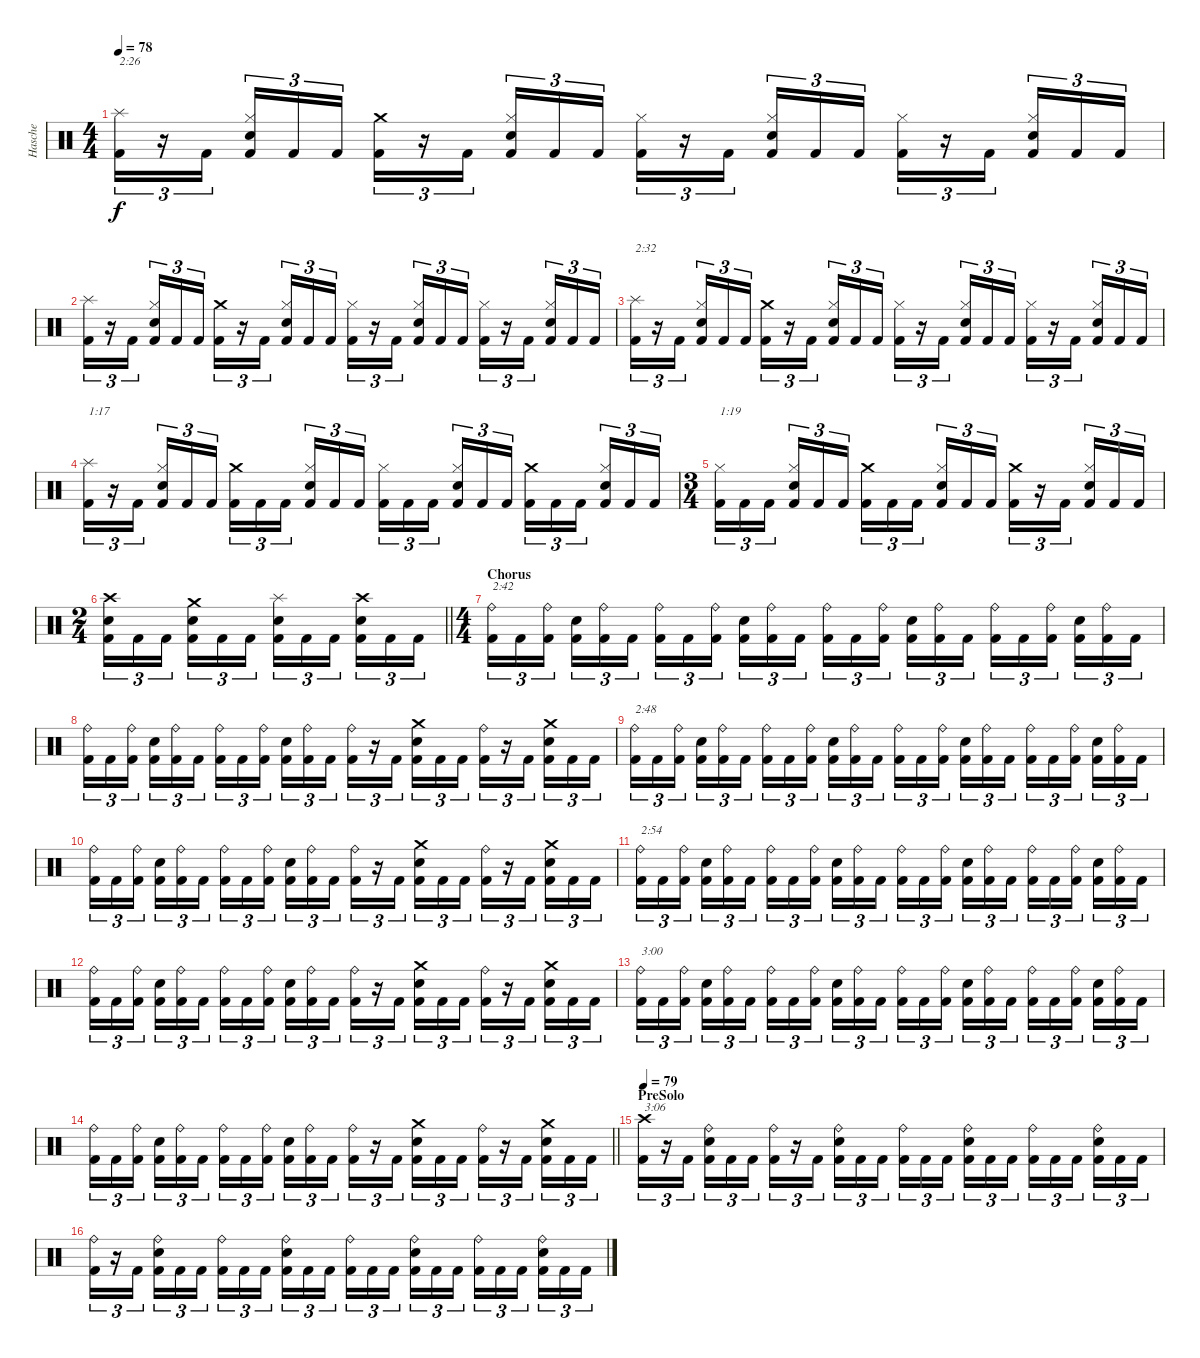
\track ("Hasche" "Hasche") {instrument percussion}
\staff {score}
\articulation defaults
\ts (4 4)
\tempo 78
\clef neutral
\ks c
("Splash (hit)" "Kick (hit) 2").16{tu (3 2) txt "2:26" dy f} r.16{tu (3 2)} "Kick (hit) 2".16{tu (3 2) beam splitsecondary} ("Hi-Hat (closed)" "Snare (hit) 2" "Kick (hit) 2").16{tu (3 2)} "Kick (hit) 2".16{tu (3 2)} "Kick (hit) 2".16{tu (3 2)} ("Crash medium (hit)" "Kick (hit) 2").16{tu (3 2)} r.16{tu (3 2)} "Kick (hit) 2".16{tu (3 2) beam splitsecondary} ("Hi-Hat (closed)" "Snare (hit) 2" "Kick (hit) 2").16{tu (3 2)} "Kick (hit) 2".16{tu (3 2)} "Kick (hit) 2".16{tu (3 2)} ("Hi-Hat (closed)" "Kick (hit) 2").16{tu (3 2)} r.16{tu (3 2)} "Kick (hit) 2".16{tu (3 2) beam splitsecondary} ("Hi-Hat (closed)" "Snare (hit) 2" "Kick (hit) 2").16{tu (3 2)} "Kick (hit) 2".16{tu (3 2)} "Kick (hit) 2".16{tu (3 2)} ("Hi-Hat (closed)" "Kick (hit) 2").16{tu (3 2)} r.16{tu (3 2)} "Kick (hit) 2".16{tu (3 2) beam splitsecondary} ("Hi-Hat (closed)" "Snare (hit) 2" "Kick (hit) 2").16{tu (3 2)} "Kick (hit) 2".16{tu (3 2)} "Kick (hit) 2".16{tu (3 2)} |
("Splash (hit)" "Kick (hit) 2").16{tu (3 2)} r.16{tu (3 2)} "Kick (hit) 2".16{tu (3 2) beam splitsecondary} ("Hi-Hat (closed)" "Snare (hit) 2" "Kick (hit) 2").16{tu (3 2)} "Kick (hit) 2".16{tu (3 2)} "Kick (hit) 2".16{tu (3 2)} ("Crash medium (hit)" "Kick (hit) 2").16{tu (3 2)} r.16{tu (3 2)} "Kick (hit) 2".16{tu (3 2) beam splitsecondary} ("Hi-Hat (closed)" "Snare (hit) 2" "Kick (hit) 2").16{tu (3 2)} "Kick (hit) 2".16{tu (3 2)} "Kick (hit) 2".16{tu (3 2)} ("Hi-Hat (closed)" "Kick (hit) 2").16{tu (3 2)} r.16{tu (3 2)} "Kick (hit) 2".16{tu (3 2) beam splitsecondary} ("Hi-Hat (closed)" "Snare (hit) 2" "Kick (hit) 2").16{tu (3 2)} "Kick (hit) 2".16{tu (3 2)} "Kick (hit) 2".16{tu (3 2)} ("Hi-Hat (closed)" "Kick (hit) 2").16{tu (3 2)} r.16{tu (3 2)} "Kick (hit) 2".16{tu (3 2) beam splitsecondary} ("Hi-Hat (closed)" "Snare (hit) 2" "Kick (hit) 2").16{tu (3 2)} "Kick (hit) 2".16{tu (3 2)} "Kick (hit) 2".16{tu (3 2)} |
("Splash (hit)" "Kick (hit) 2").16{tu (3 2) txt "2:32"} r.16{tu (3 2)} "Kick (hit) 2".16{tu (3 2) beam splitsecondary} ("Hi-Hat (closed)" "Snare (hit) 2" "Kick (hit) 2").16{tu (3 2)} "Kick (hit) 2".16{tu (3 2)} "Kick (hit) 2".16{tu (3 2)} ("Crash medium (hit)" "Kick (hit) 2").16{tu (3 2)} r.16{tu (3 2)} "Kick (hit) 2".16{tu (3 2) beam splitsecondary} ("Hi-Hat (closed)" "Snare (hit) 2" "Kick (hit) 2").16{tu (3 2)} "Kick (hit) 2".16{tu (3 2)} "Kick (hit) 2".16{tu (3 2)} ("Hi-Hat (closed)" "Kick (hit) 2").16{tu (3 2)} r.16{tu (3 2)} "Kick (hit) 2".16{tu (3 2) beam splitsecondary} ("Hi-Hat (closed)" "Snare (hit) 2" "Kick (hit) 2").16{tu (3 2)} "Kick (hit) 2".16{tu (3 2)} "Kick (hit) 2".16{tu (3 2)} ("Hi-Hat (closed)" "Kick (hit) 2").16{tu (3 2)} r.16{tu (3 2)} "Kick (hit) 2".16{tu (3 2) beam splitsecondary} ("Hi-Hat (closed)" "Snare (hit) 2" "Kick (hit) 2").16{tu (3 2)} "Kick (hit) 2".16{tu (3 2)} "Kick (hit) 2".16{tu (3 2)} |
("Splash (hit)" "Kick (hit) 2").16{tu (3 2) txt "1:17"} r.16{tu (3 2)} "Kick (hit) 2".16{tu (3 2) beam splitsecondary} ("Hi-Hat (closed)" "Snare (hit) 2" "Kick (hit) 2").16{tu (3 2)} "Kick (hit) 2".16{tu (3 2)} "Kick (hit) 2".16{tu (3 2)} ("Crash medium (hit)" "Kick (hit) 2").16{tu (3 2)} "Kick (hit) 2".16{tu (3 2)} "Kick (hit) 2".16{tu (3 2) beam splitsecondary} ("Hi-Hat (closed)" "Snare (hit) 2" "Kick (hit) 2").16{tu (3 2)} "Kick (hit) 2".16{tu (3 2)} "Kick (hit) 2".16{tu (3 2)} ("Hi-Hat (closed)" "Kick (hit) 2").16{tu (3 2)} "Kick (hit) 2".16{tu (3 2)} "Kick (hit) 2".16{tu (3 2) beam splitsecondary} ("Hi-Hat (closed)" "Snare (hit) 2" "Kick (hit) 2").16{tu (3 2)} "Kick (hit) 2".16{tu (3 2)} "Kick (hit) 2".16{tu (3 2)} ("Crash medium (hit)" "Kick (hit) 2").16{tu (3 2)} "Kick (hit) 2".16{tu (3 2)} "Kick (hit) 2".16{tu (3 2) beam splitsecondary} ("Hi-Hat (closed)" "Snare (hit) 2" "Kick (hit) 2").16{tu (3 2)} "Kick (hit) 2".16{tu (3 2)} "Kick (hit) 2".16{tu (3 2)} |
\ts (3 4)
("Hi-Hat (closed)" "Kick (hit) 2").16{tu (3 2) txt "1:19"} "Kick (hit) 2".16{tu (3 2)} "Kick (hit) 2".16{tu (3 2) beam splitsecondary} ("Hi-Hat (closed)" "Snare (hit) 2" "Kick (hit) 2").16{tu (3 2)} "Kick (hit) 2".16{tu (3 2)} "Kick (hit) 2".16{tu (3 2)} ("Crash medium (hit)" "Kick (hit) 2").16{tu (3 2)} "Kick (hit) 2".16{tu (3 2)} "Kick (hit) 2".16{tu (3 2) beam splitsecondary} ("Hi-Hat (closed)" "Snare (hit) 2" "Kick (hit) 2").16{tu (3 2)} "Kick (hit) 2".16{tu (3 2)} "Kick (hit) 2".16{tu (3 2)} ("Crash medium (hit)" "Kick (hit) 2").16{tu (3 2)} r.16{tu (3 2)} "Kick (hit) 2".16{tu (3 2) beam splitsecondary} ("Hi-Hat (closed)" "Snare (hit) 2" "Kick (hit) 2").16{tu (3 2)} "Kick (hit) 2".16{tu (3 2)} "Kick (hit) 2".16{tu (3 2)} |
\ts (2 4)
\barLineRight lightlight
("Crash high (hit)" "Snare (hit) 2" "Kick (hit) 2").16{tu (3 2)} "Kick (hit) 2".16{tu (3 2)} "Kick (hit) 2".16{tu (3 2) beam splitsecondary} ("Crash medium (hit)" "Snare (hit) 2" "Kick (hit) 2").16{tu (3 2)} "Kick (hit) 2".16{tu (3 2)} "Kick (hit) 2".16{tu (3 2)} ("Splash (hit)" "Snare (hit) 2" "Kick (hit) 2").16{tu (3 2)} "Kick (hit) 2".16{tu (3 2)} "Kick (hit) 2".16{tu (3 2) beam splitsecondary} ("Crash high (hit)" "Snare (hit) 2" "Kick (hit) 2").16{tu (3 2)} "Kick (hit) 2".16{tu (3 2)} "Kick (hit) 2".16{tu (3 2)} |
\ts (4 4)
\section ("" "Chorus")
("Ride (bell)" "Kick (hit) 2").16{tu (3 2) txt "2:42"} "Kick (hit) 2".16{tu (3 2)} ("Ride (bell)" "Kick (hit) 2").16{tu (3 2) beam splitsecondary} ("Snare (hit) 2" "Kick (hit) 2").16{tu (3 2)} ("Ride (bell)" "Kick (hit) 2").16{tu (3 2)} "Kick (hit) 2".16{tu (3 2)} ("Ride (bell)" "Kick (hit) 2").16{tu (3 2)} "Kick (hit) 2".16{tu (3 2)} ("Ride (bell)" "Kick (hit) 2").16{tu (3 2) beam splitsecondary} ("Snare (hit) 2" "Kick (hit) 2").16{tu (3 2)} ("Ride (bell)" "Kick (hit) 2").16{tu (3 2)} "Kick (hit) 2".16{tu (3 2)} ("Ride (bell)" "Kick (hit) 2").16{tu (3 2)} "Kick (hit) 2".16{tu (3 2)} ("Ride (bell)" "Kick (hit) 2").16{tu (3 2) beam splitsecondary} ("Snare (hit) 2" "Kick (hit) 2").16{tu (3 2)} ("Ride (bell)" "Kick (hit) 2").16{tu (3 2)} "Kick (hit) 2".16{tu (3 2)} ("Ride (bell)" "Kick (hit) 2").16{tu (3 2)} "Kick (hit) 2".16{tu (3 2)} ("Ride (bell)" "Kick (hit) 2").16{tu (3 2) beam splitsecondary} ("Snare (hit) 2" "Kick (hit) 2").16{tu (3 2)} ("Ride (bell)" "Kick (hit) 2").16{tu (3 2)} "Kick (hit) 2".16{tu (3 2)} |
("Ride (bell)" "Kick (hit) 2").16{tu (3 2)} "Kick (hit) 2".16{tu (3 2)} ("Ride (bell)" "Kick (hit) 2").16{tu (3 2) beam splitsecondary} ("Snare (hit) 2" "Kick (hit) 2").16{tu (3 2)} ("Ride (bell)" "Kick (hit) 2").16{tu (3 2)} "Kick (hit) 2".16{tu (3 2)} ("Ride (bell)" "Kick (hit) 2").16{tu (3 2)} "Kick (hit) 2".16{tu (3 2)} ("Ride (bell)" "Kick (hit) 2").16{tu (3 2) beam splitsecondary} ("Snare (hit) 2" "Kick (hit) 2").16{tu (3 2)} ("Ride (bell)" "Kick (hit) 2").16{tu (3 2)} "Kick (hit) 2".16{tu (3 2)} ("Ride (bell)" "Kick (hit) 2").16{tu (3 2)} r.16{tu (3 2)} "Kick (hit) 2".16{tu (3 2) beam splitsecondary} ("Crash medium (hit)" "Snare (hit) 2" "Kick (hit) 2").16{tu (3 2)} "Kick (hit) 2".16{tu (3 2)} "Kick (hit) 2".16{tu (3 2)} ("Ride (bell)" "Kick (hit) 2").16{tu (3 2)} r.16{tu (3 2)} "Kick (hit) 2".16{tu (3 2) beam splitsecondary} ("Crash medium (hit)" "Snare (hit) 2" "Kick (hit) 2").16{tu (3 2)} "Kick (hit) 2".16{tu (3 2)} "Kick (hit) 2".16{tu (3 2)} |
("Ride (bell)" "Kick (hit) 2").16{tu (3 2) txt "2:48"} "Kick (hit) 2".16{tu (3 2)} ("Ride (bell)" "Kick (hit) 2").16{tu (3 2) beam splitsecondary} ("Snare (hit) 2" "Kick (hit) 2").16{tu (3 2)} ("Ride (bell)" "Kick (hit) 2").16{tu (3 2)} "Kick (hit) 2".16{tu (3 2)} ("Ride (bell)" "Kick (hit) 2").16{tu (3 2)} "Kick (hit) 2".16{tu (3 2)} ("Ride (bell)" "Kick (hit) 2").16{tu (3 2) beam splitsecondary} ("Snare (hit) 2" "Kick (hit) 2").16{tu (3 2)} ("Ride (bell)" "Kick (hit) 2").16{tu (3 2)} "Kick (hit) 2".16{tu (3 2)} ("Ride (bell)" "Kick (hit) 2").16{tu (3 2)} "Kick (hit) 2".16{tu (3 2)} ("Ride (bell)" "Kick (hit) 2").16{tu (3 2) beam splitsecondary} ("Snare (hit) 2" "Kick (hit) 2").16{tu (3 2)} ("Ride (bell)" "Kick (hit) 2").16{tu (3 2)} "Kick (hit) 2".16{tu (3 2)} ("Ride (bell)" "Kick (hit) 2").16{tu (3 2)} "Kick (hit) 2".16{tu (3 2)} ("Ride (bell)" "Kick (hit) 2").16{tu (3 2) beam splitsecondary} ("Snare (hit) 2" "Kick (hit) 2").16{tu (3 2)} ("Ride (bell)" "Kick (hit) 2").16{tu (3 2)} "Kick (hit) 2".16{tu (3 2)} |
("Ride (bell)" "Kick (hit) 2").16{tu (3 2)} "Kick (hit) 2".16{tu (3 2)} ("Ride (bell)" "Kick (hit) 2").16{tu (3 2) beam splitsecondary} ("Snare (hit) 2" "Kick (hit) 2").16{tu (3 2)} ("Ride (bell)" "Kick (hit) 2").16{tu (3 2)} "Kick (hit) 2".16{tu (3 2)} ("Ride (bell)" "Kick (hit) 2").16{tu (3 2)} "Kick (hit) 2".16{tu (3 2)} ("Ride (bell)" "Kick (hit) 2").16{tu (3 2) beam splitsecondary} ("Snare (hit) 2" "Kick (hit) 2").16{tu (3 2)} ("Ride (bell)" "Kick (hit) 2").16{tu (3 2)} "Kick (hit) 2".16{tu (3 2)} ("Ride (bell)" "Kick (hit) 2").16{tu (3 2)} r.16{tu (3 2)} "Kick (hit) 2".16{tu (3 2) beam splitsecondary} ("Crash medium (hit)" "Snare (hit) 2" "Kick (hit) 2").16{tu (3 2)} "Kick (hit) 2".16{tu (3 2)} "Kick (hit) 2".16{tu (3 2)} ("Ride (bell)" "Kick (hit) 2").16{tu (3 2)} r.16{tu (3 2)} "Kick (hit) 2".16{tu (3 2) beam splitsecondary} ("Crash medium (hit)" "Snare (hit) 2" "Kick (hit) 2").16{tu (3 2)} "Kick (hit) 2".16{tu (3 2)} "Kick (hit) 2".16{tu (3 2)} |
("Ride (bell)" "Kick (hit) 2").16{tu (3 2) txt "2:54"} "Kick (hit) 2".16{tu (3 2)} ("Ride (bell)" "Kick (hit) 2").16{tu (3 2) beam splitsecondary} ("Snare (hit) 2" "Kick (hit) 2").16{tu (3 2)} ("Ride (bell)" "Kick (hit) 2").16{tu (3 2)} "Kick (hit) 2".16{tu (3 2)} ("Ride (bell)" "Kick (hit) 2").16{tu (3 2)} "Kick (hit) 2".16{tu (3 2)} ("Ride (bell)" "Kick (hit) 2").16{tu (3 2) beam splitsecondary} ("Snare (hit) 2" "Kick (hit) 2").16{tu (3 2)} ("Ride (bell)" "Kick (hit) 2").16{tu (3 2)} "Kick (hit) 2".16{tu (3 2)} ("Ride (bell)" "Kick (hit) 2").16{tu (3 2)} "Kick (hit) 2".16{tu (3 2)} ("Ride (bell)" "Kick (hit) 2").16{tu (3 2) beam splitsecondary} ("Snare (hit) 2" "Kick (hit) 2").16{tu (3 2)} ("Ride (bell)" "Kick (hit) 2").16{tu (3 2)} "Kick (hit) 2".16{tu (3 2)} ("Ride (bell)" "Kick (hit) 2").16{tu (3 2)} "Kick (hit) 2".16{tu (3 2)} ("Ride (bell)" "Kick (hit) 2").16{tu (3 2) beam splitsecondary} ("Snare (hit) 2" "Kick (hit) 2").16{tu (3 2)} ("Ride (bell)" "Kick (hit) 2").16{tu (3 2)} "Kick (hit) 2".16{tu (3 2)} |
("Ride (bell)" "Kick (hit) 2").16{tu (3 2)} "Kick (hit) 2".16{tu (3 2)} ("Ride (bell)" "Kick (hit) 2").16{tu (3 2) beam splitsecondary} ("Snare (hit) 2" "Kick (hit) 2").16{tu (3 2)} ("Ride (bell)" "Kick (hit) 2").16{tu (3 2)} "Kick (hit) 2".16{tu (3 2)} ("Ride (bell)" "Kick (hit) 2").16{tu (3 2)} "Kick (hit) 2".16{tu (3 2)} ("Ride (bell)" "Kick (hit) 2").16{tu (3 2) beam splitsecondary} ("Snare (hit) 2" "Kick (hit) 2").16{tu (3 2)} ("Ride (bell)" "Kick (hit) 2").16{tu (3 2)} "Kick (hit) 2".16{tu (3 2)} ("Ride (bell)" "Kick (hit) 2").16{tu (3 2)} r.16{tu (3 2)} "Kick (hit) 2".16{tu (3 2) beam splitsecondary} ("Crash medium (hit)" "Snare (hit) 2" "Kick (hit) 2").16{tu (3 2)} "Kick (hit) 2".16{tu (3 2)} "Kick (hit) 2".16{tu (3 2)} ("Ride (bell)" "Kick (hit) 2").16{tu (3 2)} r.16{tu (3 2)} "Kick (hit) 2".16{tu (3 2) beam splitsecondary} ("Crash medium (hit)" "Snare (hit) 2" "Kick (hit) 2").16{tu (3 2)} "Kick (hit) 2".16{tu (3 2)} "Kick (hit) 2".16{tu (3 2)} |
("Ride (bell)" "Kick (hit) 2").16{tu (3 2) txt "3:00"} "Kick (hit) 2".16{tu (3 2)} ("Ride (bell)" "Kick (hit) 2").16{tu (3 2) beam splitsecondary} ("Snare (hit) 2" "Kick (hit) 2").16{tu (3 2)} ("Ride (bell)" "Kick (hit) 2").16{tu (3 2)} "Kick (hit) 2".16{tu (3 2)} ("Ride (bell)" "Kick (hit) 2").16{tu (3 2)} "Kick (hit) 2".16{tu (3 2)} ("Ride (bell)" "Kick (hit) 2").16{tu (3 2) beam splitsecondary} ("Snare (hit) 2" "Kick (hit) 2").16{tu (3 2)} ("Ride (bell)" "Kick (hit) 2").16{tu (3 2)} "Kick (hit) 2".16{tu (3 2)} ("Ride (bell)" "Kick (hit) 2").16{tu (3 2)} "Kick (hit) 2".16{tu (3 2)} ("Ride (bell)" "Kick (hit) 2").16{tu (3 2) beam splitsecondary} ("Snare (hit) 2" "Kick (hit) 2").16{tu (3 2)} ("Ride (bell)" "Kick (hit) 2").16{tu (3 2)} "Kick (hit) 2".16{tu (3 2)} ("Ride (bell)" "Kick (hit) 2").16{tu (3 2)} "Kick (hit) 2".16{tu (3 2)} ("Ride (bell)" "Kick (hit) 2").16{tu (3 2) beam splitsecondary} ("Snare (hit) 2" "Kick (hit) 2").16{tu (3 2)} ("Ride (bell)" "Kick (hit) 2").16{tu (3 2)} "Kick (hit) 2".16{tu (3 2)} |
\barLineRight lightlight
("Ride (bell)" "Kick (hit) 2").16{tu (3 2)} "Kick (hit) 2".16{tu (3 2)} ("Ride (bell)" "Kick (hit) 2").16{tu (3 2) beam splitsecondary} ("Snare (hit) 2" "Kick (hit) 2").16{tu (3 2)} ("Ride (bell)" "Kick (hit) 2").16{tu (3 2)} "Kick (hit) 2".16{tu (3 2)} ("Ride (bell)" "Kick (hit) 2").16{tu (3 2)} "Kick (hit) 2".16{tu (3 2)} ("Ride (bell)" "Kick (hit) 2").16{tu (3 2) beam splitsecondary} ("Snare (hit) 2" "Kick (hit) 2").16{tu (3 2)} ("Ride (bell)" "Kick (hit) 2").16{tu (3 2)} "Kick (hit) 2".16{tu (3 2)} ("Ride (bell)" "Kick (hit) 2").16{tu (3 2)} r.16{tu (3 2)} "Kick (hit) 2".16{tu (3 2) beam splitsecondary} ("Crash medium (hit)" "Snare (hit) 2" "Kick (hit) 2").16{tu (3 2)} "Kick (hit) 2".16{tu (3 2)} "Kick (hit) 2".16{tu (3 2)} ("Ride (bell)" "Kick (hit) 2").16{tu (3 2)} r.16{tu (3 2)} "Kick (hit) 2".16{tu (3 2) beam splitsecondary} ("Crash medium (hit)" "Snare (hit) 2" "Kick (hit) 2").16{tu (3 2)} "Kick (hit) 2".16{tu (3 2)} "Kick (hit) 2".16{tu (3 2)} |
\section ("" "PreSolo")
\tempo 79
("Crash high (hit)" "Kick (hit) 2").16{tu (3 2) txt "3:06"} r.16{tu (3 2)} "Kick (hit) 2".16{tu (3 2) beam splitsecondary} ("Ride (bell)" "Snare (hit) 2" "Kick (hit) 2").16{tu (3 2)} "Kick (hit) 2".16{tu (3 2)} "Kick (hit) 2".16{tu (3 2)} ("Ride (bell)" "Kick (hit) 2").16{tu (3 2)} r.16{tu (3 2)} "Kick (hit) 2".16{tu (3 2) beam splitsecondary} ("Ride (bell)" "Snare (hit) 2" "Kick (hit) 2").16{tu (3 2)} "Kick (hit) 2".16{tu (3 2)} "Kick (hit) 2".16{tu (3 2)} ("Ride (bell)" "Kick (hit) 2").16{tu (3 2)} "Kick (hit) 2".16{tu (3 2)} "Kick (hit) 2".16{tu (3 2) beam splitsecondary} ("Ride (bell)" "Snare (hit) 2" "Kick (hit) 2").16{tu (3 2)} "Kick (hit) 2".16{tu (3 2)} "Kick (hit) 2".16{tu (3 2)} ("Ride (bell)" "Kick (hit) 2").16{tu (3 2)} "Kick (hit) 2".16{tu (3 2)} "Kick (hit) 2".16{tu (3 2) beam splitsecondary} ("Ride (bell)" "Snare (hit) 2" "Kick (hit) 2").16{tu (3 2)} "Kick (hit) 2".16{tu (3 2)} "Kick (hit) 2".16{tu (3 2)} |
("Ride (bell)" "Kick (hit) 2").16{tu (3 2)} r.16{tu (3 2)} "Kick (hit) 2".16{tu (3 2) beam splitsecondary} ("Ride (bell)" "Snare (hit) 2" "Kick (hit) 2").16{tu (3 2)} "Kick (hit) 2".16{tu (3 2)} "Kick (hit) 2".16{tu (3 2)} ("Ride (bell)" "Kick (hit) 2").16{tu (3 2)} "Kick (hit) 2".16{tu (3 2)} "Kick (hit) 2".16{tu (3 2) beam splitsecondary} ("Ride (bell)" "Snare (hit) 2" "Kick (hit) 2").16{tu (3 2)} "Kick (hit) 2".16{tu (3 2)} "Kick (hit) 2".16{tu (3 2)} ("Ride (bell)" "Kick (hit) 2").16{tu (3 2)} "Kick (hit) 2".16{tu (3 2)} "Kick (hit) 2".16{tu (3 2) beam splitsecondary} ("Ride (bell)" "Snare (hit) 2" "Kick (hit) 2").16{tu (3 2)} "Kick (hit) 2".16{tu (3 2)} "Kick (hit) 2".16{tu (3 2)} ("Ride (bell)" "Kick (hit) 2").16{tu (3 2)} "Kick (hit) 2".16{tu (3 2)} "Kick (hit) 2".16{tu (3 2) beam splitsecondary} ("Ride (bell)" "Snare (hit) 2" "Kick (hit) 2").16{tu (3 2)} "Kick (hit) 2".16{tu (3 2)} "Kick (hit) 2".16{tu (3 2)}
